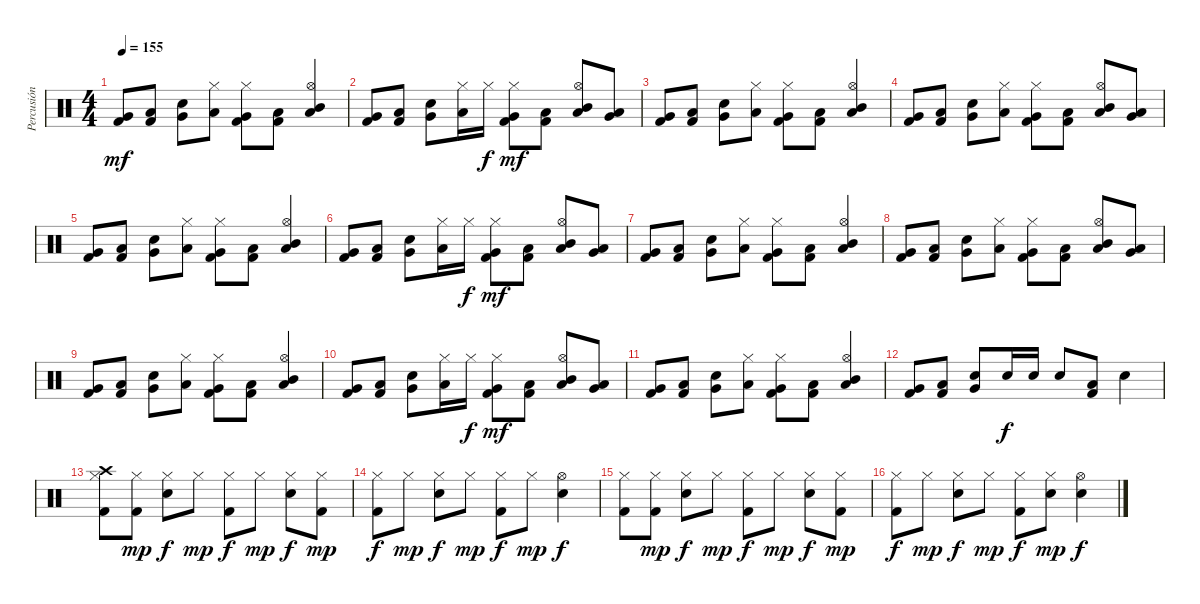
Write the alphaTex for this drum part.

\track ("Percusión" "Percusión") {instrument percussion}
\staff {score}
\articulation defaults
\ts (4 4)
\tempo 155
\clef neutral
\ks c
("Kick (hit) 2" "Very Low Tom (hit)").8{dy mf} ("Kick (hit) 2" "Low Floor Tom (hit)").8 ("Snare (hit) 2" "Very Low Tom (hit)").8 ("Hi-Hat (closed)" "Low Tom (hit)").8 ("Hi-Hat (closed)" "Kick (hit) 2" "Very Low Tom (hit)").8 ("Kick (hit) 2" "Low Floor Tom (hit)").8 ("Hi-Hat (open)" "Mid Tom (hit)" "Low Floor Tom (hit)").4 |
("Kick (hit) 2" "Very Low Tom (hit)").8 ("Kick (hit) 2" "Low Floor Tom (hit)").8 ("Snare (hit) 2" "Very Low Tom (hit)").8 ("Hi-Hat (closed)" "Low Tom (hit)").16 "Hi-Hat (closed)".16{dy f} ("Hi-Hat (closed)" "Kick (hit) 2" "Very Low Tom (hit)").8{dy mf} ("Kick (hit) 2" "Low Floor Tom (hit)").8 ("Hi-Hat (open)" "Mid Tom (hit)" "Low Floor Tom (hit)").8 ("Low Tom (hit)" "Very Low Tom (hit)").8 |
("Kick (hit) 2" "Very Low Tom (hit)").8 ("Kick (hit) 2" "Low Floor Tom (hit)").8 ("Snare (hit) 2" "Very Low Tom (hit)").8 ("Hi-Hat (closed)" "Low Tom (hit)").8 ("Hi-Hat (closed)" "Kick (hit) 2" "Very Low Tom (hit)").8 ("Kick (hit) 2" "Low Floor Tom (hit)").8 ("Hi-Hat (open)" "Mid Tom (hit)" "Low Floor Tom (hit)").4 |
("Kick (hit) 2" "Very Low Tom (hit)").8 ("Kick (hit) 2" "Low Floor Tom (hit)").8 ("Snare (hit) 2" "Very Low Tom (hit)").8 ("Hi-Hat (closed)" "Low Tom (hit)").8 ("Hi-Hat (closed)" "Kick (hit) 2" "Very Low Tom (hit)").8 ("Kick (hit) 2" "Low Floor Tom (hit)").8 ("Hi-Hat (open)" "Mid Tom (hit)" "Low Floor Tom (hit)").8 ("Low Tom (hit)" "Very Low Tom (hit)").8 |
("Kick (hit) 2" "Very Low Tom (hit)").8 ("Kick (hit) 2" "Low Floor Tom (hit)").8 ("Snare (hit) 2" "Very Low Tom (hit)").8 ("Hi-Hat (closed)" "Low Tom (hit)").8 ("Hi-Hat (closed)" "Kick (hit) 2" "Very Low Tom (hit)").8 ("Kick (hit) 2" "Low Floor Tom (hit)").8 ("Hi-Hat (open)" "Mid Tom (hit)" "Low Floor Tom (hit)").4 |
("Kick (hit) 2" "Very Low Tom (hit)").8 ("Kick (hit) 2" "Low Floor Tom (hit)").8 ("Snare (hit) 2" "Very Low Tom (hit)").8 ("Hi-Hat (closed)" "Low Tom (hit)").16 "Hi-Hat (closed)".16{dy f} ("Hi-Hat (closed)" "Kick (hit) 2" "Very Low Tom (hit)").8{dy mf} ("Kick (hit) 2" "Low Floor Tom (hit)").8 ("Hi-Hat (open)" "Mid Tom (hit)" "Low Floor Tom (hit)").8 ("Low Tom (hit)" "Very Low Tom (hit)").8 |
("Kick (hit) 2" "Very Low Tom (hit)").8 ("Kick (hit) 2" "Low Floor Tom (hit)").8 ("Snare (hit) 2" "Very Low Tom (hit)").8 ("Hi-Hat (closed)" "Low Tom (hit)").8 ("Hi-Hat (closed)" "Kick (hit) 2" "Very Low Tom (hit)").8 ("Kick (hit) 2" "Low Floor Tom (hit)").8 ("Hi-Hat (open)" "Mid Tom (hit)" "Low Floor Tom (hit)").4 |
("Kick (hit) 2" "Very Low Tom (hit)").8 ("Kick (hit) 2" "Low Floor Tom (hit)").8 ("Snare (hit) 2" "Very Low Tom (hit)").8 ("Hi-Hat (closed)" "Low Tom (hit)").8 ("Hi-Hat (closed)" "Kick (hit) 2" "Very Low Tom (hit)").8 ("Kick (hit) 2" "Low Floor Tom (hit)").8 ("Hi-Hat (open)" "Mid Tom (hit)" "Low Floor Tom (hit)").8 ("Low Tom (hit)" "Very Low Tom (hit)").8 |
("Kick (hit) 2" "Very Low Tom (hit)").8 ("Kick (hit) 2" "Low Floor Tom (hit)").8 ("Snare (hit) 2" "Very Low Tom (hit)").8 ("Hi-Hat (closed)" "Low Tom (hit)").8 ("Hi-Hat (closed)" "Kick (hit) 2" "Very Low Tom (hit)").8 ("Kick (hit) 2" "Low Floor Tom (hit)").8 ("Hi-Hat (open)" "Mid Tom (hit)" "Low Floor Tom (hit)").4 |
("Kick (hit) 2" "Very Low Tom (hit)").8 ("Kick (hit) 2" "Low Floor Tom (hit)").8 ("Snare (hit) 2" "Very Low Tom (hit)").8 ("Hi-Hat (closed)" "Low Tom (hit)").16 "Hi-Hat (closed)".16{dy f} ("Hi-Hat (closed)" "Kick (hit) 2" "Very Low Tom (hit)").8{dy mf} ("Kick (hit) 2" "Low Floor Tom (hit)").8 ("Hi-Hat (open)" "Mid Tom (hit)" "Low Floor Tom (hit)").8 ("Low Tom (hit)" "Very Low Tom (hit)").8 |
("Kick (hit) 2" "Very Low Tom (hit)").8 ("Kick (hit) 2" "Low Floor Tom (hit)").8 ("Snare (hit) 2" "Very Low Tom (hit)").8 ("Hi-Hat (closed)" "Low Tom (hit)").8 ("Hi-Hat (closed)" "Kick (hit) 2" "Very Low Tom (hit)").8 ("Kick (hit) 2" "Low Floor Tom (hit)").8 ("Hi-Hat (open)" "Mid Tom (hit)" "Low Floor Tom (hit)").4 |
("Kick (hit) 2" "Very Low Tom (hit)").8 ("Kick (hit) 2" "Low Floor Tom (hit)").8 ("Snare (hit) 2" "Very Low Tom (hit)").8 "Snare (hit) 2".16{dy f} "Snare (hit) 2".16 "Snare (hit) 2".8 ("Kick (hit) 2" "Low Tom (hit)").8 "Snare (hit) 2".4 |
("Crash high (hit)" "Hi-Hat (closed)" "Kick (hit) 2").8 ("Hi-Hat (closed)" "Kick (hit) 2").8{dy mp} ("Hi-Hat (closed)" "Snare (hit) 2").8{dy f} "Hi-Hat (closed)".8{dy mp} ("Hi-Hat (closed)" "Kick (hit) 2").8{dy f} "Hi-Hat (closed)".8{dy mp} ("Hi-Hat (closed)" "Snare (hit) 2").8{dy f} ("Hi-Hat (closed)" "Kick (hit) 2").8{dy mp} |
("Hi-Hat (closed)" "Kick (hit) 2").8{dy f} "Hi-Hat (closed)".8{dy mp} ("Hi-Hat (closed)" "Snare (hit) 2").8{dy f} "Hi-Hat (closed)".8{dy mp} ("Hi-Hat (closed)" "Kick (hit) 2").8{dy f} "Hi-Hat (closed)".8{dy mp} ("Hi-Hat (open)" "Snare (hit) 2").4{dy f} |
("Hi-Hat (closed)" "Kick (hit) 2").8 ("Hi-Hat (closed)" "Kick (hit) 2").8{dy mp} ("Hi-Hat (closed)" "Snare (hit) 2").8{dy f} "Hi-Hat (closed)".8{dy mp} ("Hi-Hat (closed)" "Kick (hit) 2").8{dy f} "Hi-Hat (closed)".8{dy mp} ("Hi-Hat (closed)" "Snare (hit) 2").8{dy f} ("Hi-Hat (closed)" "Kick (hit) 2").8{dy mp} |
("Hi-Hat (closed)" "Kick (hit) 2").8{dy f} "Hi-Hat (closed)".8{dy mp} ("Hi-Hat (closed)" "Snare (hit) 2").8{dy f} "Hi-Hat (closed)".8{dy mp} ("Hi-Hat (closed)" "Kick (hit) 2").8{dy f} ("Hi-Hat (closed)" "Snare (hit) 2").8{dy mp} ("Hi-Hat (open)" "Snare (hit) 2").4{dy f}
